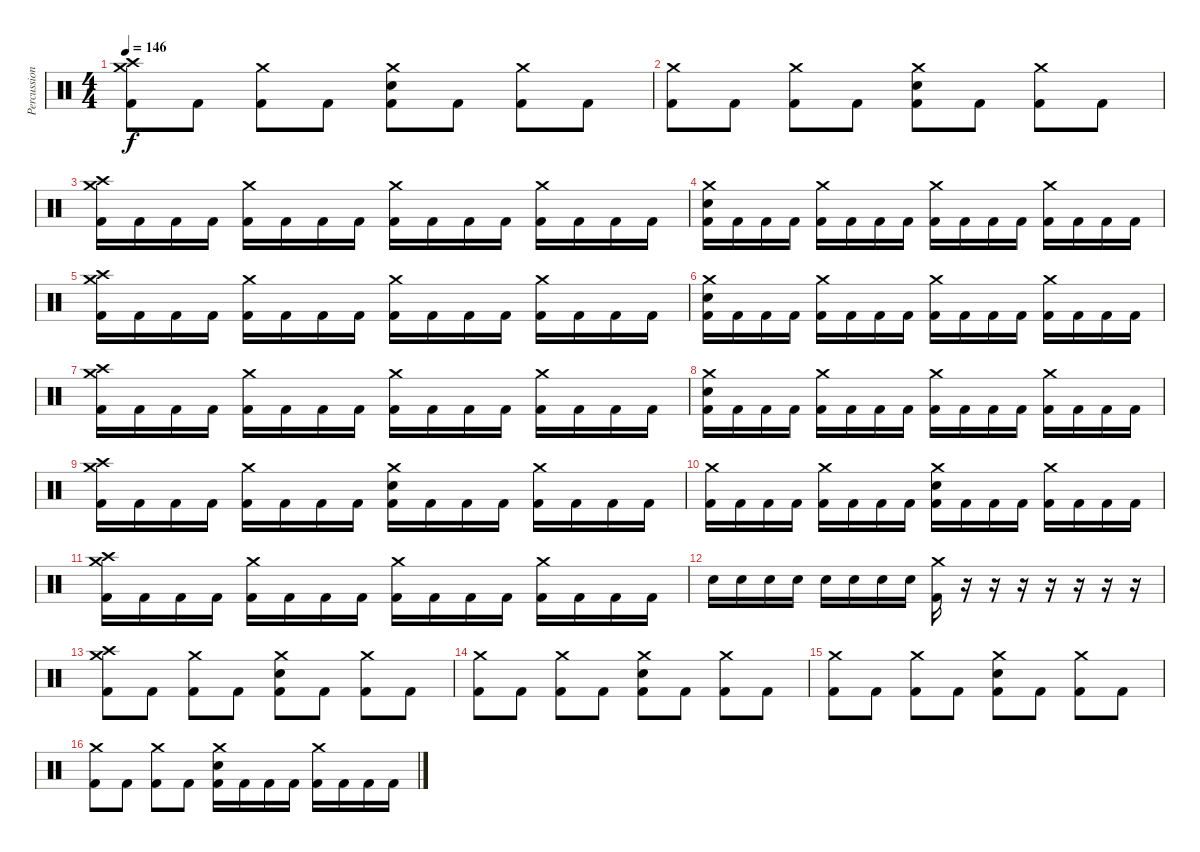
\track ("Percussion" "Percussion") {instrument percussion}
\staff {score}
\articulation defaults
\ts (4 4)
\tempo 146
\clef neutral
\ks c
("Crash high (hit)" "Crash medium (hit)" "Kick (hit) 2").8{dy f} "Kick (hit) 2".8 ("Crash medium (hit)" "Kick (hit) 2").8 "Kick (hit) 2".8 ("Crash medium (hit)" "Snare (hit) 2" "Kick (hit) 2").8 "Kick (hit) 2".8 ("Crash medium (hit)" "Kick (hit) 2").8 "Kick (hit) 2".8 |
("Crash medium (hit)" "Kick (hit) 2").8 "Kick (hit) 2".8 ("Crash medium (hit)" "Kick (hit) 2").8 "Kick (hit) 2".8 ("Crash medium (hit)" "Snare (hit) 2" "Kick (hit) 2").8 "Kick (hit) 2".8 ("Crash medium (hit)" "Kick (hit) 2").8 "Kick (hit) 2".8 |
("Crash high (hit)" "Crash medium (hit)" "Kick (hit) 2").16 "Kick (hit) 2".16 "Kick (hit) 2".16 "Kick (hit) 2".16 ("Crash medium (hit)" "Kick (hit) 2").16 "Kick (hit) 2".16 "Kick (hit) 2".16 "Kick (hit) 2".16 ("Crash medium (hit)" "Kick (hit) 2").16 "Kick (hit) 2".16 "Kick (hit) 2".16 "Kick (hit) 2".16 ("Crash medium (hit)" "Kick (hit) 2").16 "Kick (hit) 2".16 "Kick (hit) 2".16 "Kick (hit) 2".16 |
("Crash medium (hit)" "Snare (hit) 2" "Kick (hit) 2").16 "Kick (hit) 2".16 "Kick (hit) 2".16 "Kick (hit) 2".16 ("Crash medium (hit)" "Kick (hit) 2").16 "Kick (hit) 2".16 "Kick (hit) 2".16 "Kick (hit) 2".16 ("Crash medium (hit)" "Kick (hit) 2").16 "Kick (hit) 2".16 "Kick (hit) 2".16 "Kick (hit) 2".16 ("Crash medium (hit)" "Kick (hit) 2").16 "Kick (hit) 2".16 "Kick (hit) 2".16 "Kick (hit) 2".16 |
("Crash high (hit)" "Crash medium (hit)" "Kick (hit) 2").16 "Kick (hit) 2".16 "Kick (hit) 2".16 "Kick (hit) 2".16 ("Crash medium (hit)" "Kick (hit) 2").16 "Kick (hit) 2".16 "Kick (hit) 2".16 "Kick (hit) 2".16 ("Crash medium (hit)" "Kick (hit) 2").16 "Kick (hit) 2".16 "Kick (hit) 2".16 "Kick (hit) 2".16 ("Crash medium (hit)" "Kick (hit) 2").16 "Kick (hit) 2".16 "Kick (hit) 2".16 "Kick (hit) 2".16 |
("Crash medium (hit)" "Snare (hit) 2" "Kick (hit) 2").16 "Kick (hit) 2".16 "Kick (hit) 2".16 "Kick (hit) 2".16 ("Crash medium (hit)" "Kick (hit) 2").16 "Kick (hit) 2".16 "Kick (hit) 2".16 "Kick (hit) 2".16 ("Crash medium (hit)" "Kick (hit) 2").16 "Kick (hit) 2".16 "Kick (hit) 2".16 "Kick (hit) 2".16 ("Crash medium (hit)" "Kick (hit) 2").16 "Kick (hit) 2".16 "Kick (hit) 2".16 "Kick (hit) 2".16 |
("Crash high (hit)" "Crash medium (hit)" "Kick (hit) 2").16 "Kick (hit) 2".16 "Kick (hit) 2".16 "Kick (hit) 2".16 ("Crash medium (hit)" "Kick (hit) 2").16 "Kick (hit) 2".16 "Kick (hit) 2".16 "Kick (hit) 2".16 ("Crash medium (hit)" "Kick (hit) 2").16 "Kick (hit) 2".16 "Kick (hit) 2".16 "Kick (hit) 2".16 ("Crash medium (hit)" "Kick (hit) 2").16 "Kick (hit) 2".16 "Kick (hit) 2".16 "Kick (hit) 2".16 |
("Crash medium (hit)" "Snare (hit) 2" "Kick (hit) 2").16 "Kick (hit) 2".16 "Kick (hit) 2".16 "Kick (hit) 2".16 ("Crash medium (hit)" "Kick (hit) 2").16 "Kick (hit) 2".16 "Kick (hit) 2".16 "Kick (hit) 2".16 ("Crash medium (hit)" "Kick (hit) 2").16 "Kick (hit) 2".16 "Kick (hit) 2".16 "Kick (hit) 2".16 ("Crash medium (hit)" "Kick (hit) 2").16 "Kick (hit) 2".16 "Kick (hit) 2".16 "Kick (hit) 2".16 |
("Crash high (hit)" "Crash medium (hit)" "Kick (hit) 2").16 "Kick (hit) 2".16 "Kick (hit) 2".16 "Kick (hit) 2".16 ("Crash medium (hit)" "Kick (hit) 2").16 "Kick (hit) 2".16 "Kick (hit) 2".16 "Kick (hit) 2".16 ("Crash medium (hit)" "Snare (hit) 2" "Kick (hit) 2").16 "Kick (hit) 2".16 "Kick (hit) 2".16 "Kick (hit) 2".16 ("Crash medium (hit)" "Kick (hit) 2").16 "Kick (hit) 2".16 "Kick (hit) 2".16 "Kick (hit) 2".16 |
("Crash medium (hit)" "Kick (hit) 2").16 "Kick (hit) 2".16 "Kick (hit) 2".16 "Kick (hit) 2".16 ("Crash medium (hit)" "Kick (hit) 2").16 "Kick (hit) 2".16 "Kick (hit) 2".16 "Kick (hit) 2".16 ("Crash medium (hit)" "Snare (hit) 2" "Kick (hit) 2").16 "Kick (hit) 2".16 "Kick (hit) 2".16 "Kick (hit) 2".16 ("Crash medium (hit)" "Kick (hit) 2").16 "Kick (hit) 2".16 "Kick (hit) 2".16 "Kick (hit) 2".16 |
("Crash high (hit)" "Crash medium (hit)" "Kick (hit) 2").16 "Kick (hit) 2".16 "Kick (hit) 2".16 "Kick (hit) 2".16 ("Crash medium (hit)" "Kick (hit) 2").16 "Kick (hit) 2".16 "Kick (hit) 2".16 "Kick (hit) 2".16 ("Crash medium (hit)" "Kick (hit) 2").16 "Kick (hit) 2".16 "Kick (hit) 2".16 "Kick (hit) 2".16 ("Crash medium (hit)" "Kick (hit) 2").16 "Kick (hit) 2".16 "Kick (hit) 2".16 "Kick (hit) 2".16 |
"Snare (hit) 2".16 "Snare (hit) 2".16 "Snare (hit) 2".16 "Snare (hit) 2".16 "Snare (hit) 2".16 "Snare (hit) 2".16 "Snare (hit) 2".16 "Snare (hit) 2".16 ("Crash medium (hit)" "Kick (hit) 2").16 r.16 r.16 r.16 r.16 r.16 r.16 r.16 |
("Crash high (hit)" "Crash medium (hit)" "Kick (hit) 2").8 "Kick (hit) 2".8 ("Crash medium (hit)" "Kick (hit) 2").8 "Kick (hit) 2".8 ("Crash medium (hit)" "Snare (hit) 2" "Kick (hit) 2").8 "Kick (hit) 2".8 ("Crash medium (hit)" "Kick (hit) 2").8 "Kick (hit) 2".8 |
("Crash medium (hit)" "Kick (hit) 2").8 "Kick (hit) 2".8 ("Crash medium (hit)" "Kick (hit) 2").8 "Kick (hit) 2".8 ("Crash medium (hit)" "Snare (hit) 2" "Kick (hit) 2").8 "Kick (hit) 2".8 ("Crash medium (hit)" "Kick (hit) 2").8 "Kick (hit) 2".8 |
("Crash medium (hit)" "Kick (hit) 2").8 "Kick (hit) 2".8 ("Crash medium (hit)" "Kick (hit) 2").8 "Kick (hit) 2".8 ("Crash medium (hit)" "Snare (hit) 2" "Kick (hit) 2").8 "Kick (hit) 2".8 ("Crash medium (hit)" "Kick (hit) 2").8 "Kick (hit) 2".8 |
("Crash medium (hit)" "Kick (hit) 2").8 "Kick (hit) 2".8 ("Crash medium (hit)" "Kick (hit) 2").8 "Kick (hit) 2".8 ("Crash medium (hit)" "Snare (hit) 2" "Kick (hit) 2").16 "Kick (hit) 2".16 "Kick (hit) 2".16 "Kick (hit) 2".16 ("Crash medium (hit)" "Kick (hit) 2").16 "Kick (hit) 2".16 "Kick (hit) 2".16 "Kick (hit) 2".16
